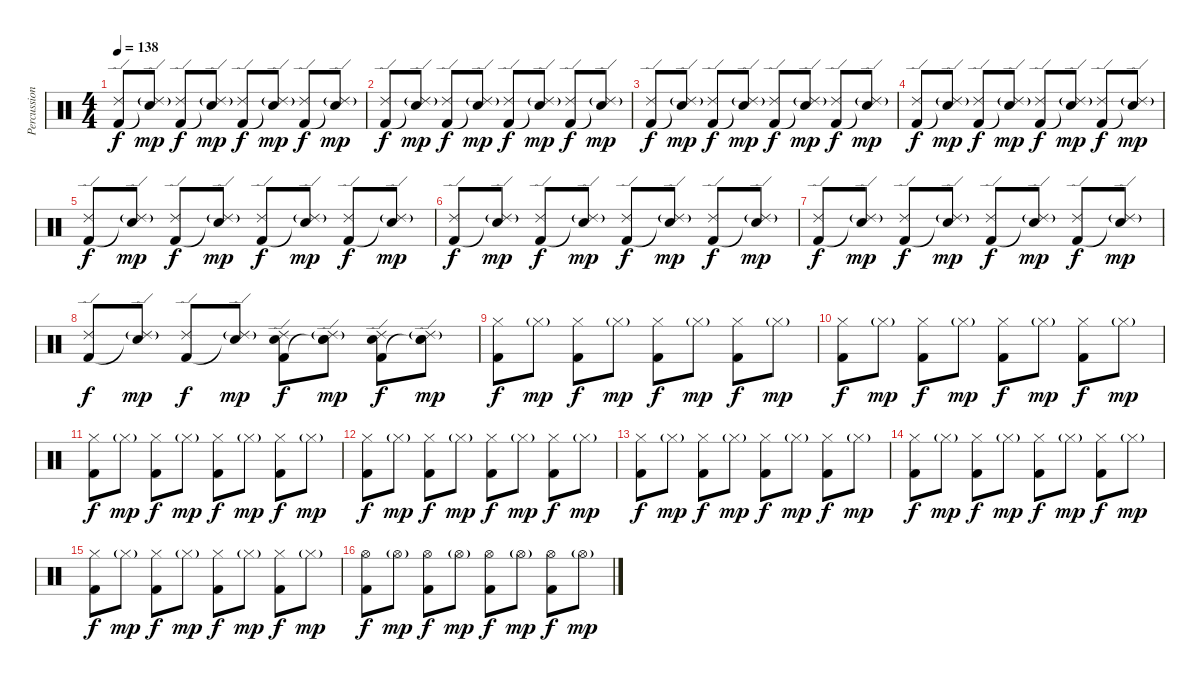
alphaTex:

\track ("Percussion" "Percussion") {instrument percussion}
\staff {score}
\articulation defaults
\ts (4 4)
\tempo 138
\clef neutral
\ks c
("Ride (edge) 2" "Kick (hit) 2").8{dy f} ("Ride (edge) 2"{g} "Snare (hit)"{t}).8{dy mp} ("Ride (edge) 2" "Kick (hit) 2").8{dy f} ("Ride (edge) 2"{g} "Snare (hit)"{t}).8{dy mp} ("Ride (edge) 2" "Kick (hit) 2").8{dy f} ("Ride (edge) 2"{g} "Snare (hit)"{t}).8{dy mp} ("Ride (edge) 2" "Kick (hit) 2").8{dy f} ("Ride (edge) 2"{g} "Snare (hit)"{t}).8{dy mp} |
("Ride (edge) 2" "Kick (hit) 2").8{dy f} ("Ride (edge) 2"{g} "Snare (hit)"{t}).8{dy mp} ("Ride (edge) 2" "Kick (hit) 2").8{dy f} ("Ride (edge) 2"{g} "Snare (hit)"{t}).8{dy mp} ("Ride (edge) 2" "Kick (hit) 2").8{dy f} ("Ride (edge) 2"{g} "Snare (hit)"{t}).8{dy mp} ("Ride (edge) 2" "Kick (hit) 2").8{dy f} ("Ride (edge) 2"{g} "Snare (hit)"{t}).8{dy mp} |
("Ride (edge) 2" "Kick (hit) 2").8{dy f} ("Ride (edge) 2"{g} "Snare (hit)"{t}).8{dy mp} ("Ride (edge) 2" "Kick (hit) 2").8{dy f} ("Ride (edge) 2"{g} "Snare (hit)"{t}).8{dy mp} ("Ride (edge) 2" "Kick (hit) 2").8{dy f} ("Ride (edge) 2"{g} "Snare (hit)"{t}).8{dy mp} ("Ride (edge) 2" "Kick (hit) 2").8{dy f} ("Ride (edge) 2"{g} "Snare (hit)"{t}).8{dy mp} |
("Ride (edge) 2" "Kick (hit) 2").8{dy f} ("Ride (edge) 2"{g} "Snare (hit)"{t}).8{dy mp} ("Ride (edge) 2" "Kick (hit) 2").8{dy f} ("Ride (edge) 2"{g} "Snare (hit)"{t}).8{dy mp} ("Ride (edge) 2" "Kick (hit) 2").8{dy f} ("Ride (edge) 2"{g} "Snare (hit)"{t}).8{dy mp} ("Ride (edge) 2" "Kick (hit) 2").8{dy f} ("Ride (edge) 2"{g} "Snare (hit)"{t}).8{dy mp} |
("Ride (edge) 2" "Kick (hit) 2").8{dy f} ("Ride (edge) 2"{g} "Snare (hit)"{t}).8{dy mp} ("Ride (edge) 2" "Kick (hit) 2").8{dy f} ("Ride (edge) 2"{g} "Snare (hit)"{t}).8{dy mp} ("Ride (edge) 2" "Kick (hit) 2").8{dy f} ("Ride (edge) 2"{g} "Snare (hit)"{t}).8{dy mp} ("Ride (edge) 2" "Kick (hit) 2").8{dy f} ("Ride (edge) 2"{g} "Snare (hit)"{t}).8{dy mp} |
("Ride (edge) 2" "Kick (hit) 2").8{dy f} ("Ride (edge) 2"{g} "Snare (hit)"{t}).8{dy mp} ("Ride (edge) 2" "Kick (hit) 2").8{dy f} ("Ride (edge) 2"{g} "Snare (hit)"{t}).8{dy mp} ("Ride (edge) 2" "Kick (hit) 2").8{dy f} ("Ride (edge) 2"{g} "Snare (hit)"{t}).8{dy mp} ("Ride (edge) 2" "Kick (hit) 2").8{dy f} ("Ride (edge) 2"{g} "Snare (hit)"{t}).8{dy mp} |
("Ride (edge) 2" "Kick (hit) 2").8{dy f} ("Ride (edge) 2"{g} "Snare (hit)"{t}).8{dy mp} ("Ride (edge) 2" "Kick (hit) 2").8{dy f} ("Ride (edge) 2"{g} "Snare (hit)"{t}).8{dy mp} ("Ride (edge) 2" "Kick (hit) 2").8{dy f} ("Ride (edge) 2"{g} "Snare (hit)"{t}).8{dy mp} ("Ride (edge) 2" "Kick (hit) 2").8{dy f} ("Ride (edge) 2"{g} "Snare (hit)"{t}).8{dy mp} |
("Ride (edge) 2" "Kick (hit) 2").8{dy f} ("Ride (edge) 2"{g} "Snare (hit)"{t}).8{dy mp} ("Ride (edge) 2" "Kick (hit) 2").8{dy f} ("Ride (edge) 2"{g} "Snare (hit)"{t}).8{dy mp} ("Ride (edge) 2" "Snare (hit) 2" "Kick (hit) 2").8{dy f} ("Ride (edge) 2"{g} "Snare (hit) 2" "Snare (hit)"{t}).8{dy mp} ("Ride (edge) 2" "Snare (hit) 2" "Kick (hit) 2").8{dy f} ("Ride (edge) 2"{g} "Snare (hit) 2" "Snare (hit)"{t}).8{dy mp} |
("Hi-Hat (closed)" "Kick (hit) 2").8{dy f} "Hi-Hat (closed)"{g}.8{dy mp} ("Hi-Hat (closed)" "Kick (hit) 2").8{dy f} "Hi-Hat (closed)"{g}.8{dy mp} ("Hi-Hat (closed)" "Kick (hit) 2").8{dy f} "Hi-Hat (closed)"{g}.8{dy mp} ("Hi-Hat (closed)" "Kick (hit) 2").8{dy f} "Hi-Hat (closed)"{g}.8{dy mp} |
("Hi-Hat (closed)" "Kick (hit) 2").8{dy f} "Hi-Hat (closed)"{g}.8{dy mp} ("Hi-Hat (closed)" "Kick (hit) 2").8{dy f} "Hi-Hat (closed)"{g}.8{dy mp} ("Hi-Hat (closed)" "Kick (hit) 2").8{dy f} "Hi-Hat (closed)"{g}.8{dy mp} ("Hi-Hat (closed)" "Kick (hit) 2").8{dy f} "Hi-Hat (closed)"{g}.8{dy mp} |
("Hi-Hat (closed)" "Kick (hit) 2").8{dy f} "Hi-Hat (closed)"{g}.8{dy mp} ("Hi-Hat (closed)" "Kick (hit) 2").8{dy f} "Hi-Hat (closed)"{g}.8{dy mp} ("Hi-Hat (closed)" "Kick (hit) 2").8{dy f} "Hi-Hat (closed)"{g}.8{dy mp} ("Hi-Hat (closed)" "Kick (hit) 2").8{dy f} "Hi-Hat (closed)"{g}.8{dy mp} |
("Hi-Hat (closed)" "Kick (hit) 2").8{dy f} "Hi-Hat (closed)"{g}.8{dy mp} ("Hi-Hat (closed)" "Kick (hit) 2").8{dy f} "Hi-Hat (closed)"{g}.8{dy mp} ("Hi-Hat (closed)" "Kick (hit) 2").8{dy f} "Hi-Hat (closed)"{g}.8{dy mp} ("Hi-Hat (closed)" "Kick (hit) 2").8{dy f} "Hi-Hat (closed)"{g}.8{dy mp} |
("Hi-Hat (closed)" "Kick (hit) 2").8{dy f} "Hi-Hat (closed)"{g}.8{dy mp} ("Hi-Hat (closed)" "Kick (hit) 2").8{dy f} "Hi-Hat (closed)"{g}.8{dy mp} ("Hi-Hat (closed)" "Kick (hit) 2").8{dy f} "Hi-Hat (closed)"{g}.8{dy mp} ("Hi-Hat (closed)" "Kick (hit) 2").8{dy f} "Hi-Hat (closed)"{g}.8{dy mp} |
("Hi-Hat (closed)" "Kick (hit) 2").8{dy f} "Hi-Hat (closed)"{g}.8{dy mp} ("Hi-Hat (closed)" "Kick (hit) 2").8{dy f} "Hi-Hat (closed)"{g}.8{dy mp} ("Hi-Hat (closed)" "Kick (hit) 2").8{dy f} "Hi-Hat (closed)"{g}.8{dy mp} ("Hi-Hat (closed)" "Kick (hit) 2").8{dy f} "Hi-Hat (closed)"{g}.8{dy mp} |
("Hi-Hat (closed)" "Kick (hit) 2").8{dy f} "Hi-Hat (closed)"{g}.8{dy mp} ("Hi-Hat (closed)" "Kick (hit) 2").8{dy f} "Hi-Hat (closed)"{g}.8{dy mp} ("Hi-Hat (closed)" "Kick (hit) 2").8{dy f} "Hi-Hat (closed)"{g}.8{dy mp} ("Hi-Hat (closed)" "Kick (hit) 2").8{dy f} "Hi-Hat (closed)"{g}.8{dy mp} |
("Hi-Hat (open)" "Kick (hit) 2").8{dy f} "Hi-Hat (open)"{g}.8{dy mp} ("Hi-Hat (open)" "Kick (hit) 2").8{dy f} "Hi-Hat (open)"{g}.8{dy mp} ("Hi-Hat (open)" "Kick (hit) 2").8{dy f} "Hi-Hat (open)"{g}.8{dy mp} ("Hi-Hat (open)" "Kick (hit) 2").8{dy f} "Hi-Hat (open)"{g}.8{dy mp}
